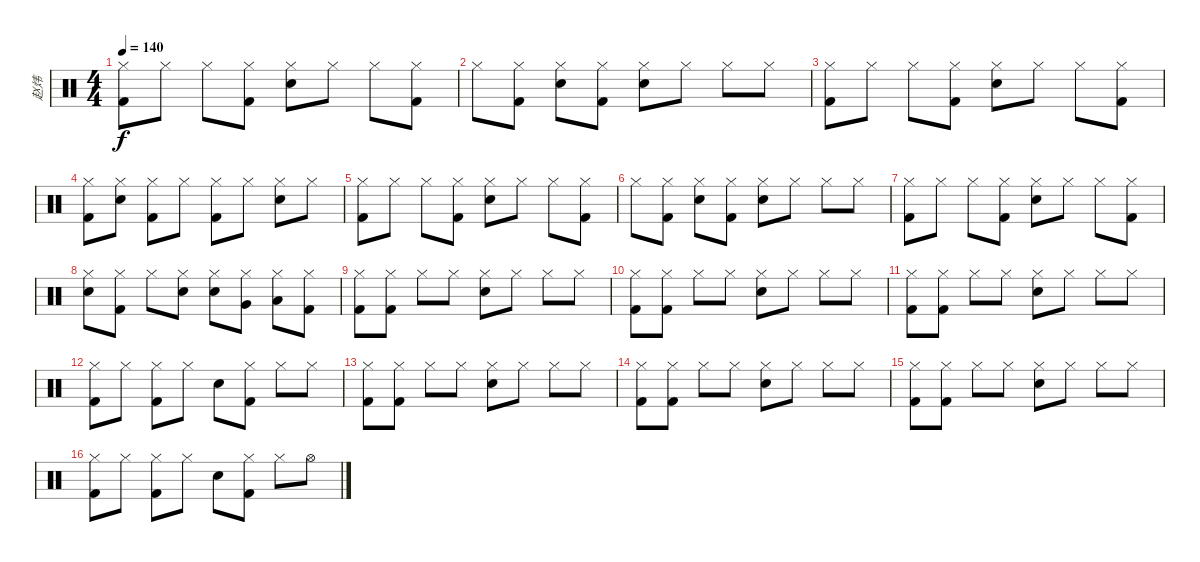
\track ("赵炜" "赵炜") {instrument percussion}
\staff {score}
\articulation defaults
\ts (4 4)
\tempo 140
\clef neutral
\ks c
("Hi-Hat (closed)" "Kick (hit) 2").8{dy f} "Hi-Hat (closed)".8 "Hi-Hat (closed)".8 ("Hi-Hat (closed)" "Kick (hit) 2").8 ("Hi-Hat (closed)" "Snare (hit) 2").8 "Hi-Hat (closed)".8 "Hi-Hat (closed)".8 ("Hi-Hat (closed)" "Kick (hit) 2").8 |
"Hi-Hat (closed)".8 ("Hi-Hat (closed)" "Kick (hit) 2").8 ("Hi-Hat (closed)" "Snare (hit) 2").8 ("Hi-Hat (closed)" "Kick (hit) 2").8 ("Hi-Hat (closed)" "Snare (hit) 2").8 "Hi-Hat (closed)".8 "Hi-Hat (closed)".8 "Hi-Hat (closed)".8 |
("Hi-Hat (closed)" "Kick (hit) 2").8 "Hi-Hat (closed)".8 "Hi-Hat (closed)".8 ("Hi-Hat (closed)" "Kick (hit) 2").8 ("Hi-Hat (closed)" "Snare (hit) 2").8 "Hi-Hat (closed)".8 "Hi-Hat (closed)".8 ("Hi-Hat (closed)" "Kick (hit) 2").8 |
("Hi-Hat (closed)" "Kick (hit) 2").8 ("Hi-Hat (closed)" "Snare (hit) 2").8 ("Hi-Hat (closed)" "Kick (hit) 2").8 "Hi-Hat (closed)".8 ("Hi-Hat (closed)" "Kick (hit) 2").8 "Hi-Hat (closed)".8 ("Hi-Hat (closed)" "Snare (hit) 2").8 "Hi-Hat (closed)".8 |
("Hi-Hat (closed)" "Kick (hit) 2").8 "Hi-Hat (closed)".8 "Hi-Hat (closed)".8 ("Hi-Hat (closed)" "Kick (hit) 2").8 ("Hi-Hat (closed)" "Snare (hit) 2").8 "Hi-Hat (closed)".8 "Hi-Hat (closed)".8 ("Hi-Hat (closed)" "Kick (hit) 2").8 |
"Hi-Hat (closed)".8 ("Hi-Hat (closed)" "Kick (hit) 2").8 ("Hi-Hat (closed)" "Snare (hit) 2").8 ("Hi-Hat (closed)" "Kick (hit) 2").8 ("Hi-Hat (closed)" "Snare (hit) 2").8 "Hi-Hat (closed)".8 "Hi-Hat (closed)".8 "Hi-Hat (closed)".8 |
("Hi-Hat (closed)" "Kick (hit) 2").8 "Hi-Hat (closed)".8 "Hi-Hat (closed)".8 ("Hi-Hat (closed)" "Kick (hit) 2").8 ("Hi-Hat (closed)" "Snare (hit) 2").8 "Hi-Hat (closed)".8 "Hi-Hat (closed)".8 ("Hi-Hat (closed)" "Kick (hit) 2").8 |
("Hi-Hat (closed)" "Snare (hit) 2").8 ("Hi-Hat (closed)" "Kick (hit) 2").8 "Hi-Hat (closed)".8 ("Hi-Hat (closed)" "Snare (hit) 2").8 ("Hi-Hat (closed)" "Snare (hit) 2").8 ("Hi-Hat (closed)" "Very Low Tom (hit)").8 ("Hi-Hat (closed)" "Low Floor Tom (hit)").8 ("Hi-Hat (closed)" "Kick (hit) 2").8 |
("Hi-Hat (closed)" "Kick (hit) 2").8 ("Hi-Hat (closed)" "Kick (hit) 2").8 "Hi-Hat (closed)".8 "Hi-Hat (closed)".8 ("Hi-Hat (closed)" "Snare (hit) 2").8 "Hi-Hat (closed)".8 "Hi-Hat (closed)".8 "Hi-Hat (closed)".8 |
("Hi-Hat (closed)" "Kick (hit) 2").8 ("Hi-Hat (closed)" "Kick (hit) 2").8 "Hi-Hat (closed)".8 "Hi-Hat (closed)".8 ("Hi-Hat (closed)" "Snare (hit) 2").8 "Hi-Hat (closed)".8 "Hi-Hat (closed)".8 "Hi-Hat (closed)".8 |
("Hi-Hat (closed)" "Kick (hit) 2").8 ("Hi-Hat (closed)" "Kick (hit) 2").8 "Hi-Hat (closed)".8 "Hi-Hat (closed)".8 ("Hi-Hat (closed)" "Snare (hit) 2").8 "Hi-Hat (closed)".8 "Hi-Hat (closed)".8 "Hi-Hat (closed)".8 |
("Hi-Hat (closed)" "Kick (hit) 2").8 "Hi-Hat (closed)".8 ("Hi-Hat (closed)" "Kick (hit) 2").8 "Hi-Hat (closed)".8 "Snare (hit) 2".8 ("Hi-Hat (closed)" "Kick (hit) 2").8 "Hi-Hat (closed)".8 "Hi-Hat (closed)".8 |
("Hi-Hat (closed)" "Kick (hit) 2").8 ("Hi-Hat (closed)" "Kick (hit) 2").8 "Hi-Hat (closed)".8 "Hi-Hat (closed)".8 ("Hi-Hat (closed)" "Snare (hit) 2").8 "Hi-Hat (closed)".8 "Hi-Hat (closed)".8 "Hi-Hat (closed)".8 |
("Hi-Hat (closed)" "Kick (hit) 2").8 ("Hi-Hat (closed)" "Kick (hit) 2").8 "Hi-Hat (closed)".8 "Hi-Hat (closed)".8 ("Hi-Hat (closed)" "Snare (hit) 2").8 "Hi-Hat (closed)".8 "Hi-Hat (closed)".8 "Hi-Hat (closed)".8 |
("Hi-Hat (closed)" "Kick (hit) 2").8 ("Hi-Hat (closed)" "Kick (hit) 2").8 "Hi-Hat (closed)".8 "Hi-Hat (closed)".8 ("Hi-Hat (closed)" "Snare (hit) 2").8 "Hi-Hat (closed)".8 "Hi-Hat (closed)".8 "Hi-Hat (closed)".8 |
("Hi-Hat (closed)" "Kick (hit) 2").8 "Hi-Hat (closed)".8 ("Hi-Hat (closed)" "Kick (hit) 2").8 "Hi-Hat (closed)".8 "Snare (hit) 2".8 ("Hi-Hat (closed)" "Kick (hit) 2").8 "Hi-Hat (closed)".8 "Hi-Hat (open)".8
